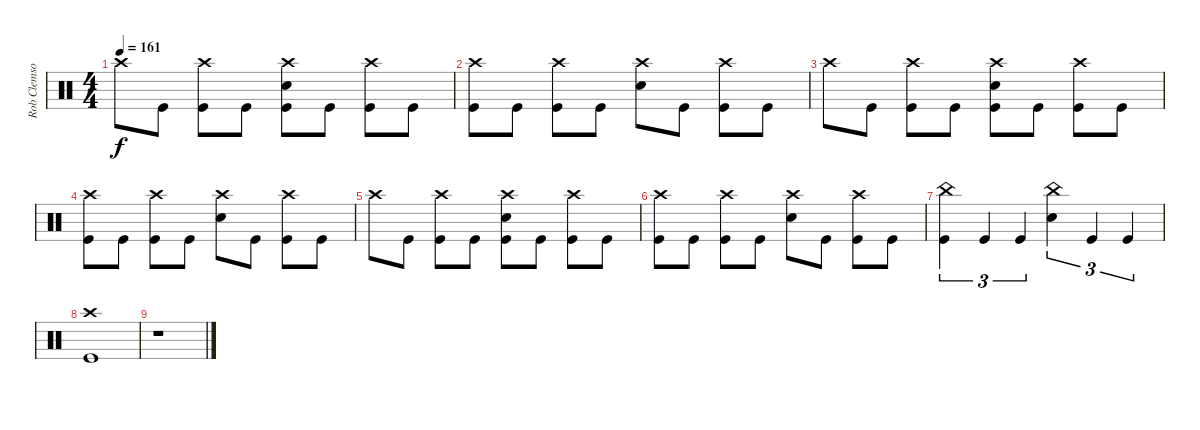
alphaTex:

\track ("Rob Clemson (Drums)" "Rob Clemso") {instrument percussion}
\staff {score}
\articulation defaults
\ts (4 4)
\tempo 161
\clef neutral
\ks c "Crash high (hit)".8{dy f} "Kick (hit)".8
("Kick (hit)" "Crash high (hit)").8 "Kick (hit)".8 ("Crash high (hit)" "Kick (hit)" "Electric Snare (hit)").8 "Kick (hit)".8 ("Kick (hit)" "Crash high (hit)").8 "Kick (hit)".8 |
("Kick (hit)" "Crash high (hit)").8 "Kick (hit)".8 ("Kick (hit)" "Crash high (hit)").8 "Kick (hit)".8 ("Electric Snare (hit)" "Crash high (hit)").8 "Kick (hit)".8 ("Kick (hit)" "Crash high (hit)").8 "Kick (hit)".8 |
"Crash high (hit)".8 "Kick (hit)".8 ("Kick (hit)" "Crash high (hit)").8 "Kick (hit)".8 ("Crash high (hit)" "Kick (hit)" "Electric Snare (hit)").8 "Kick (hit)".8 ("Kick (hit)" "Crash high (hit)").8 "Kick (hit)".8 |
("Kick (hit)" "Crash high (hit)").8 "Kick (hit)".8 ("Kick (hit)" "Crash high (hit)").8 "Kick (hit)".8 ("Electric Snare (hit)" "Crash high (hit)").8 "Kick (hit)".8 ("Kick (hit)" "Crash high (hit)").8 "Kick (hit)".8 |
"Crash high (hit)".8 "Kick (hit)".8 ("Kick (hit)" "Crash high (hit)").8 "Kick (hit)".8 ("Crash high (hit)" "Kick (hit)" "Electric Snare (hit)").8 "Kick (hit)".8 ("Kick (hit)" "Crash high (hit)").8 "Kick (hit)".8 |
("Kick (hit)" "Crash high (hit)").8 "Kick (hit)".8 ("Kick (hit)" "Crash high (hit)").8 "Kick (hit)".8 ("Electric Snare (hit)" "Crash high (hit)").8 "Kick (hit)".8 ("Kick (hit)" "Crash high (hit)").8 "Kick (hit)".8 |
("Kick (hit)" "China (hit)").4{tu (3 2)} "Kick (hit)".4{tu (3 2)} "Kick (hit)".4{tu (3 2)} ("Electric Snare (hit)" "China (hit)").4{tu (3 2)} "Kick (hit)".4{tu (3 2)} "Kick (hit)".4{tu (3 2)} |
("Kick (hit)" "Crash high (hit)").1 |
r.1
